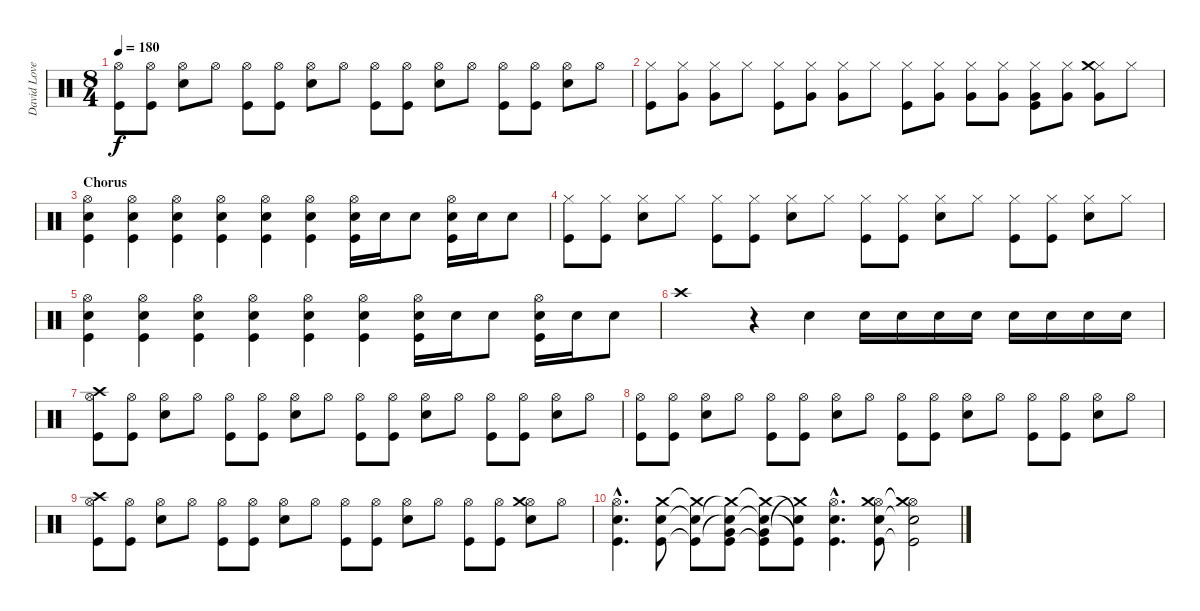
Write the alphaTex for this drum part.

\track ("David Lovering" "David Love") {instrument percussion}
\staff {score}
\articulation defaults
\ts (8 4)
\tempo 180
\clef neutral
\ks c
("Hi-Hat (open)" "Kick (hit)").8{dy f} ("Hi-Hat (open)" "Kick (hit)").8 ("Hi-Hat (open)" "Snare (hit) 2").8 "Hi-Hat (open)".8 ("Hi-Hat (open)" "Kick (hit)").8 ("Hi-Hat (open)" "Kick (hit)").8 ("Hi-Hat (open)" "Snare (hit) 2").8 "Hi-Hat (open)".8 ("Hi-Hat (open)" "Kick (hit)").8 ("Hi-Hat (open)" "Kick (hit)").8 ("Hi-Hat (open)" "Snare (hit) 2").8 "Hi-Hat (open)".8 ("Hi-Hat (open)" "Kick (hit)").8 ("Hi-Hat (open)" "Kick (hit)").8 ("Hi-Hat (open)" "Snare (hit) 2").8 "Hi-Hat (open)".8 |
("Hi-Hat (closed)" "Kick (hit)").8 ("Hi-Hat (closed)" "Very Low Tom (hit)").8 ("Hi-Hat (closed)" "Very Low Tom (hit)").8 "Hi-Hat (closed)".8 ("Hi-Hat (closed)" "Kick (hit)").8 ("Hi-Hat (closed)" "Very Low Tom (hit)").8 ("Hi-Hat (closed)" "Very Low Tom (hit)").8 "Hi-Hat (closed)".8 ("Hi-Hat (closed)" "Kick (hit)").8 ("Hi-Hat (closed)" "Very Low Tom (hit)").8 ("Hi-Hat (closed)" "Very Low Tom (hit)").8 ("Hi-Hat (closed)" "Very Low Tom (hit)").8 ("Hi-Hat (closed)" "Very Low Tom (hit)" "Kick (hit)").8 ("Hi-Hat (closed)" "Very Low Tom (hit)").8 ("Hi-Hat (closed)" "Crash medium (hit)" "Very Low Tom (hit)").8 "Hi-Hat (closed)".8 |
\section ("" "Chorus")
("Hi-Hat (open)" "Snare (hit) 2" "Kick (hit)").4 ("Hi-Hat (open)" "Snare (hit) 2" "Kick (hit)").4 ("Hi-Hat (open)" "Snare (hit) 2" "Kick (hit)").4 ("Hi-Hat (open)" "Snare (hit) 2" "Kick (hit)").4 ("Hi-Hat (open)" "Snare (hit) 2" "Kick (hit)").4 ("Hi-Hat (open)" "Snare (hit) 2" "Kick (hit)").4 ("Hi-Hat (open)" "Snare (hit) 2" "Kick (hit)").16 "Snare (hit) 2".16 "Snare (hit) 2".8 ("Hi-Hat (open)" "Snare (hit) 2" "Kick (hit)").16 "Snare (hit) 2".16 "Snare (hit) 2".8 |
("Hi-Hat (closed)" "Kick (hit)").8 ("Hi-Hat (closed)" "Kick (hit)").8 ("Hi-Hat (closed)" "Snare (hit) 2").8 "Hi-Hat (closed)".8 ("Hi-Hat (closed)" "Kick (hit)").8 ("Hi-Hat (closed)" "Kick (hit)").8 ("Hi-Hat (closed)" "Snare (hit) 2").8 "Hi-Hat (closed)".8 ("Hi-Hat (closed)" "Kick (hit)").8 ("Hi-Hat (closed)" "Kick (hit)").8 ("Hi-Hat (closed)" "Snare (hit) 2").8 "Hi-Hat (closed)".8 ("Hi-Hat (closed)" "Kick (hit)").8 ("Hi-Hat (closed)" "Kick (hit)").8 ("Hi-Hat (closed)" "Snare (hit) 2").8 "Hi-Hat (closed)".8 |
("Hi-Hat (open)" "Snare (hit) 2" "Kick (hit)").4 ("Hi-Hat (open)" "Snare (hit) 2" "Kick (hit)").4 ("Hi-Hat (open)" "Snare (hit) 2" "Kick (hit)").4 ("Hi-Hat (open)" "Snare (hit) 2" "Kick (hit)").4 ("Hi-Hat (open)" "Snare (hit) 2" "Kick (hit)").4 ("Hi-Hat (open)" "Snare (hit) 2" "Kick (hit)").4 ("Hi-Hat (open)" "Snare (hit) 2" "Kick (hit)").16 "Snare (hit) 2".16 "Snare (hit) 2".8 ("Hi-Hat (open)" "Snare (hit) 2" "Kick (hit)").16 "Snare (hit) 2".16 "Snare (hit) 2".8 |
"Crash high (hit)".1 r.4 "Snare (hit) 2".4 "Snare (hit) 2".16 "Snare (hit) 2".16 "Snare (hit) 2".16 "Snare (hit) 2".16 "Snare (hit) 2".16 "Snare (hit) 2".16 "Snare (hit) 2".16 "Snare (hit) 2".16 |
("Hi-Hat (open)" "Crash high (hit)" "Kick (hit)").8 ("Hi-Hat (open)" "Kick (hit)").8 ("Hi-Hat (open)" "Snare (hit) 2").8 "Hi-Hat (open)".8 ("Hi-Hat (open)" "Kick (hit)").8 ("Hi-Hat (open)" "Kick (hit)").8 ("Hi-Hat (open)" "Snare (hit) 2").8 "Hi-Hat (open)".8 ("Hi-Hat (open)" "Kick (hit)").8 ("Hi-Hat (open)" "Kick (hit)").8 ("Hi-Hat (open)" "Snare (hit) 2").8 "Hi-Hat (open)".8 ("Hi-Hat (open)" "Kick (hit)").8 ("Hi-Hat (open)" "Kick (hit)").8 ("Hi-Hat (open)" "Snare (hit) 2").8 "Hi-Hat (open)".8 |
("Hi-Hat (open)" "Kick (hit)").8 ("Hi-Hat (open)" "Kick (hit)").8 ("Hi-Hat (open)" "Snare (hit) 2").8 "Hi-Hat (open)".8 ("Hi-Hat (open)" "Kick (hit)").8 ("Hi-Hat (open)" "Kick (hit)").8 ("Hi-Hat (open)" "Snare (hit) 2").8 "Hi-Hat (open)".8 ("Hi-Hat (open)" "Kick (hit)").8 ("Hi-Hat (open)" "Kick (hit)").8 ("Hi-Hat (open)" "Snare (hit) 2").8 "Hi-Hat (open)".8 ("Hi-Hat (open)" "Kick (hit)").8 ("Hi-Hat (open)" "Kick (hit)").8 ("Hi-Hat (open)" "Snare (hit) 2").8 "Hi-Hat (open)".8 |
("Hi-Hat (open)" "Crash high (hit)" "Kick (hit)").8 ("Hi-Hat (open)" "Kick (hit)").8 ("Hi-Hat (open)" "Snare (hit) 2").8 "Hi-Hat (open)".8 ("Hi-Hat (open)" "Kick (hit)").8 ("Hi-Hat (open)" "Kick (hit)").8 ("Hi-Hat (open)" "Snare (hit) 2").8 "Hi-Hat (open)".8 ("Hi-Hat (open)" "Kick (hit)").8 ("Hi-Hat (open)" "Kick (hit)").8 ("Hi-Hat (open)" "Snare (hit) 2").8 "Hi-Hat (open)".8 ("Hi-Hat (open)" "Kick (hit)").8 ("Hi-Hat (open)" "Kick (hit)").8 ("Hi-Hat (open)" "Crash medium (hit)" "Snare (hit) 2").8 "Hi-Hat (open)".8 |
("Hi-Hat (open)"{hac} "Snare (hit) 2"{hac} "Kick (hit)"{hac}).4{d} ("Crash medium (hit)" "Snare (hit) 2" "Kick (hit)").8 ("Crash medium (hit)"{t} "Snare (hit) 2"{t} "Kick (hit)"{t}).8 ("Very Low Tom (hit)" "Crash medium (hit)"{t} "Snare (hit) 2"{t} "Kick (hit)").8 ("Very Low Tom (hit)" "Crash medium (hit)"{t} "Snare (hit) 2"{t} "Kick (hit)"{t}).8 ("Crash medium (hit)"{t} "Snare (hit) 2"{t} "Kick (hit)"{t}).8 ("Hi-Hat (open)"{hac} "Snare (hit) 2"{hac} "Kick (hit)"{hac}).4{d} ("Hi-Hat (open)" "Crash medium (hit)" "Snare (hit) 2" "Kick (hit)").8 ("Hi-Hat (open)"{t} "Crash medium (hit)"{t} "Snare (hit) 2"{t} "Kick (hit)"{t}).2
